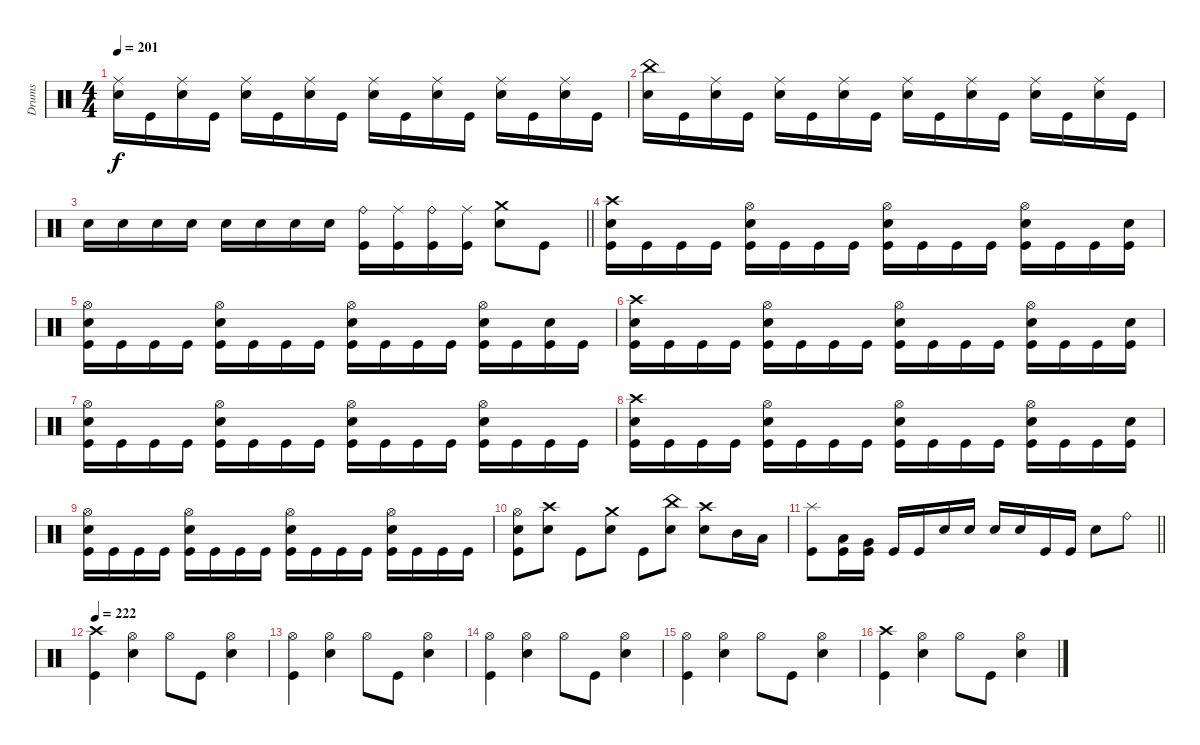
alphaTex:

\track ("Drums" "Drums") {instrument percussion}
\staff
\articulation defaults
\ts (4 4)
\tempo 201
\clef neutral
\ks c
("Ride (middle)" "Electric Snare (hit)").16{dy f} "Kick (hit)".16 ("Ride (middle)" "Electric Snare (hit)").16 "Kick (hit)".16 ("Ride (middle)" "Electric Snare (hit)").16 "Kick (hit)".16 ("Ride (middle)" "Electric Snare (hit)").16 "Kick (hit)".16 ("Ride (middle)" "Electric Snare (hit)").16 "Kick (hit)".16 ("Ride (middle)" "Electric Snare (hit)").16 "Kick (hit)".16 ("Ride (middle)" "Electric Snare (hit)").16 "Kick (hit)".16 ("Ride (middle)" "Electric Snare (hit)").16 "Kick (hit)".16 |
("China (hit)" "Electric Snare (hit)").16 "Kick (hit)".16 ("Ride (middle)" "Electric Snare (hit)").16 "Kick (hit)".16 ("Ride (middle)" "Electric Snare (hit)").16 "Kick (hit)".16 ("Ride (middle)" "Electric Snare (hit)").16 "Kick (hit)".16 ("Ride (middle)" "Electric Snare (hit)").16 "Kick (hit)".16 ("Ride (middle)" "Electric Snare (hit)").16 "Kick (hit)".16 ("Ride (middle)" "Electric Snare (hit)").16 "Kick (hit)".16 ("Ride (middle)" "Electric Snare (hit)").16 "Kick (hit)".16 |
\barLineRight lightlight "Electric Snare (hit)".16 "Electric Snare (hit)".16 "Electric Snare (hit)".16 "Electric Snare (hit)".16 "Electric Snare (hit)".16 "Electric Snare (hit)".16 "Electric Snare (hit)".16 "Electric Snare (hit)".16
("Ride (bell)" "Kick (hit)").16 ("Ride (middle)" "Kick (hit)").16 ("Ride (bell)" "Kick (hit)").16 ("Ride (middle)" "Kick (hit)").16 ("Crash medium (hit)" "Electric Snare (hit)").8 "Kick (hit)".8 |
("Crash high (hit)" "Electric Snare (hit)" "Kick (hit)").16 "Kick (hit)".16 "Kick (hit)".16 "Kick (hit)".16 ("Hi-Hat (open)" "Electric Snare (hit)" "Kick (hit)").16 "Kick (hit)".16 "Kick (hit)".16 "Kick (hit)".16 ("Hi-Hat (open)" "Electric Snare (hit)" "Kick (hit)").16 "Kick (hit)".16 "Kick (hit)".16 "Kick (hit)".16 ("Hi-Hat (open)" "Electric Snare (hit)" "Kick (hit)").16 "Kick (hit)".16 "Kick (hit)".16 ("Electric Snare (hit)" "Kick (hit)").16 |
("Hi-Hat (open)" "Electric Snare (hit)" "Kick (hit)").16 "Kick (hit)".16 "Kick (hit)".16 "Kick (hit)".16 ("Hi-Hat (open)" "Electric Snare (hit)" "Kick (hit)").16 "Kick (hit)".16 "Kick (hit)".16 "Kick (hit)".16 ("Hi-Hat (open)" "Electric Snare (hit)" "Kick (hit)").16 "Kick (hit)".16 "Kick (hit)".16 "Kick (hit)".16 ("Hi-Hat (open)" "Electric Snare (hit)" "Kick (hit)").16 "Kick (hit)".16 ("Electric Snare (hit)" "Kick (hit)").16 "Kick (hit)".16 |
("Crash high (hit)" "Electric Snare (hit)" "Kick (hit)").16 "Kick (hit)".16 "Kick (hit)".16 "Kick (hit)".16 ("Hi-Hat (open)" "Electric Snare (hit)" "Kick (hit)").16 "Kick (hit)".16 "Kick (hit)".16 "Kick (hit)".16 ("Hi-Hat (open)" "Electric Snare (hit)" "Kick (hit)").16 "Kick (hit)".16 "Kick (hit)".16 "Kick (hit)".16 ("Hi-Hat (open)" "Electric Snare (hit)" "Kick (hit)").16 "Kick (hit)".16 "Kick (hit)".16 ("Electric Snare (hit)" "Kick (hit)").16 |
("Hi-Hat (open)" "Electric Snare (hit)" "Kick (hit)").16 "Kick (hit)".16 "Kick (hit)".16 "Kick (hit)".16 ("Hi-Hat (open)" "Electric Snare (hit)" "Kick (hit)").16 "Kick (hit)".16 "Kick (hit)".16 "Kick (hit)".16 ("Hi-Hat (open)" "Electric Snare (hit)" "Kick (hit)").16 "Kick (hit)".16 "Kick (hit)".16 "Kick (hit)".16 ("Hi-Hat (open)" "Electric Snare (hit)" "Kick (hit)").16 "Kick (hit)".16 "Kick (hit)".16 "Kick (hit)".16 |
("Crash high (hit)" "Electric Snare (hit)" "Kick (hit)").16 "Kick (hit)".16 "Kick (hit)".16 "Kick (hit)".16 ("Hi-Hat (open)" "Electric Snare (hit)" "Kick (hit)").16 "Kick (hit)".16 "Kick (hit)".16 "Kick (hit)".16 ("Hi-Hat (open)" "Electric Snare (hit)" "Kick (hit)").16 "Kick (hit)".16 "Kick (hit)".16 "Kick (hit)".16 ("Hi-Hat (open)" "Electric Snare (hit)" "Kick (hit)").16 "Kick (hit)".16 "Kick (hit)".16 ("Electric Snare (hit)" "Kick (hit)").16 |
("Hi-Hat (open)" "Electric Snare (hit)" "Kick (hit)").16 "Kick (hit)".16 "Kick (hit)".16 "Kick (hit)".16 ("Hi-Hat (open)" "Electric Snare (hit)" "Kick (hit)").16 "Kick (hit)".16 "Kick (hit)".16 "Kick (hit)".16 ("Hi-Hat (open)" "Electric Snare (hit)" "Kick (hit)").16 "Kick (hit)".16 "Kick (hit)".16 "Kick (hit)".16 ("Hi-Hat (open)" "Electric Snare (hit)" "Kick (hit)").16 "Kick (hit)".16 "Kick (hit)".16 "Kick (hit)".16 |
("Hi-Hat (open)" "Electric Snare (hit)" "Kick (hit)").8 ("Crash high (hit)" "Electric Snare (hit)").8 "Kick (hit)".8 ("Crash medium (hit)" "Electric Snare (hit)").8 "Kick (hit)".8 ("China (hit)" "Electric Snare (hit)").8 ("Crash high (hit)" "Electric Snare (hit)").8 "Mid Tom (hit)".16 "Low Tom (hit)".16 |
\barLineRight lightlight
("Splash (hit)" "Kick (hit)").8 ("Low Tom (hit)" "Kick (hit)").16 ("Very Low Tom (hit)" "Kick (hit)").16 "Kick (hit)".16 "Kick (hit)".16 "Electric Snare (hit)".16 "Electric Snare (hit)".16 "Electric Snare (hit)".16 "Electric Snare (hit)".16 "Kick (hit)".16 "Kick (hit)".16 "Electric Snare (hit)".8 "Ride (bell)".8 |
\section ("" "")
\tempo 222
("Crash high (hit)" "Kick (hit)").4 ("Hi-Hat (open)" "Electric Snare (hit)").4 "Hi-Hat (open)".8 "Kick (hit)".8 ("Hi-Hat (open)" "Electric Snare (hit)").4 |
("Hi-Hat (open)" "Kick (hit)").4 ("Hi-Hat (open)" "Electric Snare (hit)").4 "Hi-Hat (open)".8 "Kick (hit)".8 ("Hi-Hat (open)" "Electric Snare (hit)").4 |
("Hi-Hat (open)" "Kick (hit)").4 ("Hi-Hat (open)" "Electric Snare (hit)").4 "Hi-Hat (open)".8 "Kick (hit)".8 ("Hi-Hat (open)" "Electric Snare (hit)").4 |
("Hi-Hat (open)" "Kick (hit)").4 ("Hi-Hat (open)" "Electric Snare (hit)").4 "Hi-Hat (open)".8 "Kick (hit)".8 ("Hi-Hat (open)" "Electric Snare (hit)").4 |
("Crash high (hit)" "Kick (hit)").4 ("Hi-Hat (open)" "Electric Snare (hit)").4 "Hi-Hat (open)".8 "Kick (hit)".8 ("Hi-Hat (open)" "Electric Snare (hit)").4
